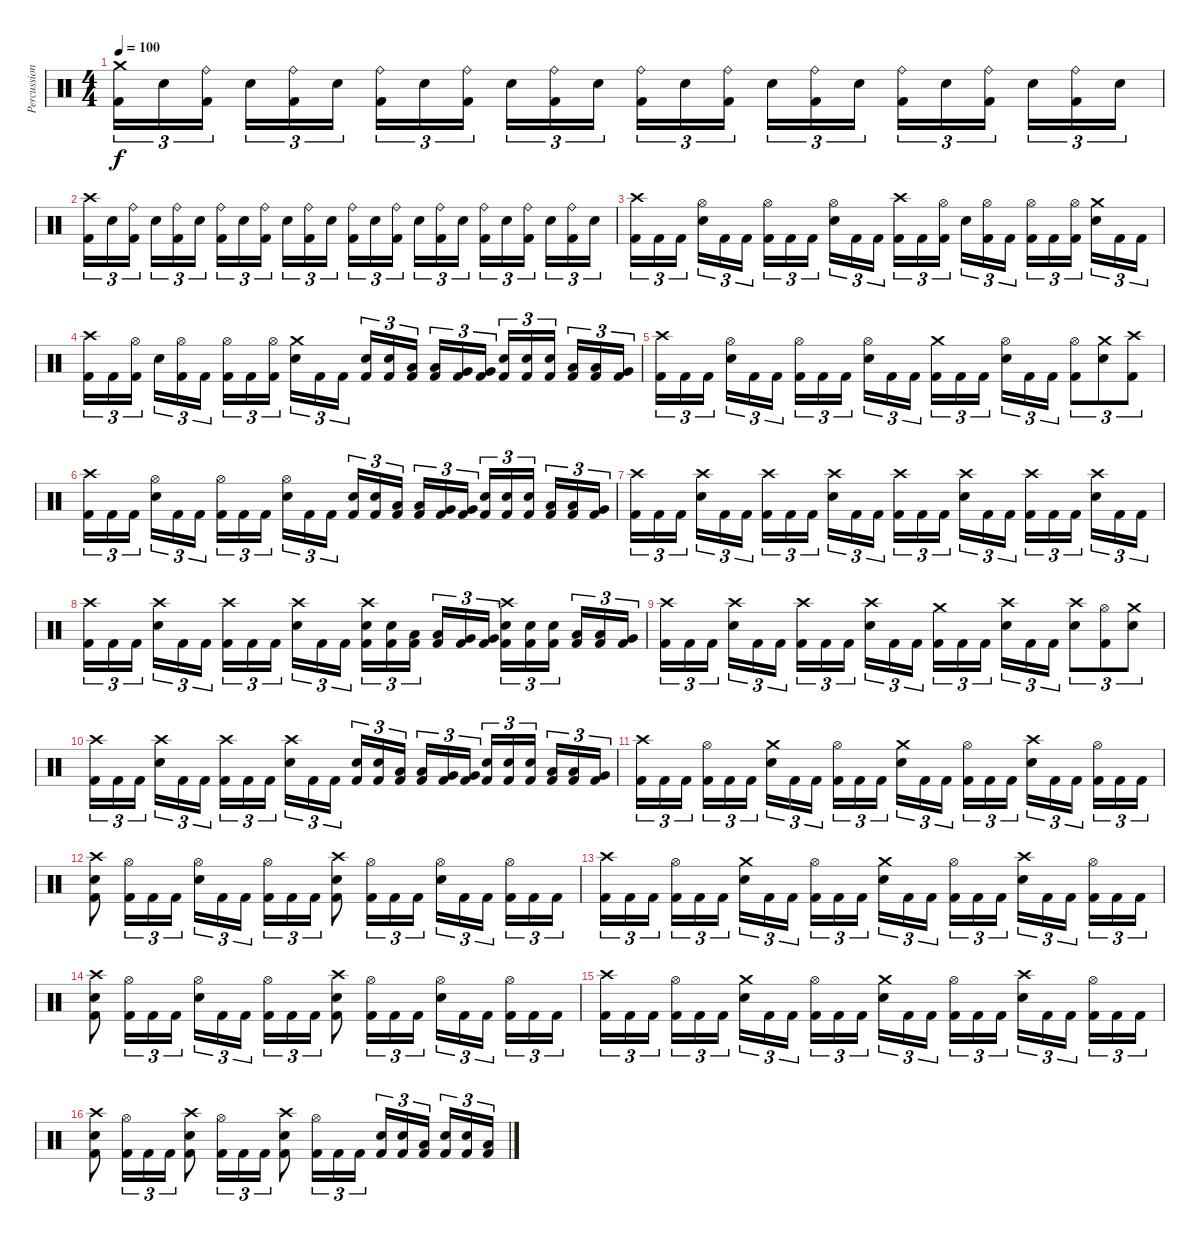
\track ("Percussion" "Percussion") {instrument percussion}
\staff {score}
\articulation defaults
\ts (4 4)
\tempo 100
\clef neutral
\ks c
("Crash medium (hit)" "Kick (hit) 2").16{tu (3 2) dy f} "Electric Snare (hit)".16{tu (3 2)} ("Ride (bell)" "Kick (hit) 2").16{tu (3 2)} "Electric Snare (hit)".16{tu (3 2)} ("Ride (bell)" "Kick (hit) 2").16{tu (3 2)} "Electric Snare (hit)".16{tu (3 2)} ("Ride (bell)" "Kick (hit) 2").16{tu (3 2)} "Electric Snare (hit)".16{tu (3 2)} ("Ride (bell)" "Kick (hit) 2").16{tu (3 2)} "Electric Snare (hit)".16{tu (3 2)} ("Ride (bell)" "Kick (hit) 2").16{tu (3 2)} "Electric Snare (hit)".16{tu (3 2)} ("Ride (bell)" "Kick (hit) 2").16{tu (3 2)} "Electric Snare (hit)".16{tu (3 2)} ("Ride (bell)" "Kick (hit) 2").16{tu (3 2)} "Electric Snare (hit)".16{tu (3 2)} ("Ride (bell)" "Kick (hit) 2").16{tu (3 2)} "Electric Snare (hit)".16{tu (3 2)} ("Ride (bell)" "Kick (hit) 2").16{tu (3 2)} "Electric Snare (hit)".16{tu (3 2)} ("Ride (bell)" "Kick (hit) 2").16{tu (3 2)} "Electric Snare (hit)".16{tu (3 2)} ("Ride (bell)" "Kick (hit) 2").16{tu (3 2)} "Electric Snare (hit)".16{tu (3 2)} |
("Crash high (hit)" "Kick (hit) 2").16{tu (3 2)} "Electric Snare (hit)".16{tu (3 2)} ("Ride (bell)" "Kick (hit) 2").16{tu (3 2)} "Electric Snare (hit)".16{tu (3 2)} ("Ride (bell)" "Kick (hit) 2").16{tu (3 2)} "Electric Snare (hit)".16{tu (3 2)} ("Ride (bell)" "Kick (hit) 2").16{tu (3 2)} "Electric Snare (hit)".16{tu (3 2)} ("Ride (bell)" "Kick (hit) 2").16{tu (3 2)} "Electric Snare (hit)".16{tu (3 2)} ("Ride (bell)" "Kick (hit) 2").16{tu (3 2)} "Electric Snare (hit)".16{tu (3 2)} ("Ride (bell)" "Kick (hit) 2").16{tu (3 2)} "Electric Snare (hit)".16{tu (3 2)} ("Ride (bell)" "Kick (hit) 2").16{tu (3 2)} "Electric Snare (hit)".16{tu (3 2)} ("Ride (bell)" "Kick (hit) 2").16{tu (3 2)} "Electric Snare (hit)".16{tu (3 2)} ("Ride (bell)" "Kick (hit) 2").16{tu (3 2)} "Electric Snare (hit)".16{tu (3 2)} ("Ride (bell)" "Kick (hit) 2").16{tu (3 2)} "Electric Snare (hit)".16{tu (3 2)} ("Ride (bell)" "Kick (hit) 2").16{tu (3 2)} "Electric Snare (hit)".16{tu (3 2)} |
("Crash high (hit)" "Kick (hit) 2").16{tu (3 2)} "Kick (hit) 2".16{tu (3 2)} "Kick (hit) 2".16{tu (3 2)} ("Hi-Hat (open)" "Electric Snare (hit)").16{tu (3 2)} "Kick (hit) 2".16{tu (3 2)} "Kick (hit) 2".16{tu (3 2)} ("Hi-Hat (open)" "Kick (hit) 2").16{tu (3 2)} "Kick (hit) 2".16{tu (3 2)} "Kick (hit) 2".16{tu (3 2)} ("Hi-Hat (open)" "Electric Snare (hit)").16{tu (3 2)} "Kick (hit) 2".16{tu (3 2)} "Kick (hit) 2".16{tu (3 2)} ("Crash high (hit)" "Kick (hit) 2").16{tu (3 2)} "Kick (hit) 2".16{tu (3 2)} ("Hi-Hat (open)" "Kick (hit) 2").16{tu (3 2)} "Electric Snare (hit)".16{tu (3 2)} ("Hi-Hat (open)" "Kick (hit) 2").16{tu (3 2)} "Kick (hit) 2".16{tu (3 2)} ("Hi-Hat (open)" "Kick (hit) 2").16{tu (3 2)} "Kick (hit) 2".16{tu (3 2)} ("Hi-Hat (open)" "Kick (hit) 2").16{tu (3 2)} ("Crash medium (hit)" "Electric Snare (hit)").16{tu (3 2)} "Kick (hit) 2".16{tu (3 2)} "Kick (hit) 2".16{tu (3 2)} |
("Crash high (hit)" "Kick (hit) 2").16{tu (3 2)} "Kick (hit) 2".16{tu (3 2)} ("Hi-Hat (open)" "Kick (hit) 2").16{tu (3 2)} "Electric Snare (hit)".16{tu (3 2)} ("Hi-Hat (open)" "Kick (hit) 2").16{tu (3 2)} "Kick (hit) 2".16{tu (3 2)} ("Hi-Hat (open)" "Kick (hit) 2").16{tu (3 2)} "Kick (hit) 2".16{tu (3 2)} ("Hi-Hat (open)" "Kick (hit) 2").16{tu (3 2)} ("Crash medium (hit)" "Electric Snare (hit)").16{tu (3 2)} "Kick (hit) 2".16{tu (3 2)} "Kick (hit) 2".16{tu (3 2)} ("Electric Snare (hit)" "Kick (hit) 2").16{tu (3 2)} ("Electric Snare (hit)" "Kick (hit) 2").16{tu (3 2)} ("Low Tom (hit)" "Kick (hit) 2").16{tu (3 2)} ("Low Tom (hit)" "Kick (hit) 2").16{tu (3 2)} ("Very Low Tom (hit)" "Kick (hit) 2").16{tu (3 2)} ("Very Low Tom (hit)" "Kick (hit) 2").16{tu (3 2)} ("Electric Snare (hit)" "Kick (hit) 2").16{tu (3 2)} ("Electric Snare (hit)" "Kick (hit) 2").16{tu (3 2)} ("Electric Snare (hit)" "Kick (hit) 2").16{tu (3 2)} ("Low Tom (hit)" "Kick (hit) 2").16{tu (3 2)} ("Low Tom (hit)" "Kick (hit) 2").16{tu (3 2)} ("Very Low Tom (hit)" "Kick (hit) 2").16{tu (3 2)} |
("Crash high (hit)" "Kick (hit) 2").16{tu (3 2)} "Kick (hit) 2".16{tu (3 2)} "Kick (hit) 2".16{tu (3 2)} ("Hi-Hat (open)" "Electric Snare (hit)").16{tu (3 2)} "Kick (hit) 2".16{tu (3 2)} "Kick (hit) 2".16{tu (3 2)} ("Hi-Hat (open)" "Kick (hit) 2").16{tu (3 2)} "Kick (hit) 2".16{tu (3 2)} "Kick (hit) 2".16{tu (3 2)} ("Hi-Hat (open)" "Electric Snare (hit)").16{tu (3 2)} "Kick (hit) 2".16{tu (3 2)} "Kick (hit) 2".16{tu (3 2)} ("Crash medium (hit)" "Kick (hit) 2").16{tu (3 2)} "Kick (hit) 2".16{tu (3 2)} "Kick (hit) 2".16{tu (3 2)} ("Hi-Hat (open)" "Electric Snare (hit)").16{tu (3 2)} "Kick (hit) 2".16{tu (3 2)} "Kick (hit) 2".16{tu (3 2)} ("Hi-Hat (open)" "Kick (hit) 2").8{tu (3 2)} ("Crash medium (hit)" "Electric Snare (hit)").8{tu (3 2)} ("Crash high (hit)" "Kick (hit) 2").8{tu (3 2)} |
("Crash high (hit)" "Kick (hit) 2").16{tu (3 2)} "Kick (hit) 2".16{tu (3 2)} "Kick (hit) 2".16{tu (3 2)} ("Hi-Hat (open)" "Electric Snare (hit)").16{tu (3 2)} "Kick (hit) 2".16{tu (3 2)} "Kick (hit) 2".16{tu (3 2)} ("Hi-Hat (open)" "Kick (hit) 2").16{tu (3 2)} "Kick (hit) 2".16{tu (3 2)} "Kick (hit) 2".16{tu (3 2)} ("Hi-Hat (open)" "Electric Snare (hit)").16{tu (3 2)} "Kick (hit) 2".16{tu (3 2)} "Kick (hit) 2".16{tu (3 2)} ("Electric Snare (hit)" "Kick (hit) 2").16{tu (3 2)} ("Electric Snare (hit)" "Kick (hit) 2").16{tu (3 2)} ("Low Tom (hit)" "Kick (hit) 2").16{tu (3 2)} ("Low Tom (hit)" "Kick (hit) 2").16{tu (3 2)} ("Very Low Tom (hit)" "Kick (hit) 2").16{tu (3 2)} ("Very Low Tom (hit)" "Kick (hit) 2").16{tu (3 2)} ("Electric Snare (hit)" "Kick (hit) 2").16{tu (3 2)} ("Electric Snare (hit)" "Kick (hit) 2").16{tu (3 2)} ("Electric Snare (hit)" "Kick (hit) 2").16{tu (3 2)} ("Low Tom (hit)" "Kick (hit) 2").16{tu (3 2)} ("Low Tom (hit)" "Kick (hit) 2").16{tu (3 2)} ("Very Low Tom (hit)" "Kick (hit) 2").16{tu (3 2)} |
("Crash high (hit)" "Kick (hit) 2").16{tu (3 2)} "Kick (hit) 2".16{tu (3 2)} "Kick (hit) 2".16{tu (3 2)} ("Crash high (hit)" "Electric Snare (hit)").16{tu (3 2)} "Kick (hit) 2".16{tu (3 2)} "Kick (hit) 2".16{tu (3 2)} ("Crash high (hit)" "Kick (hit) 2").16{tu (3 2)} "Kick (hit) 2".16{tu (3 2)} "Kick (hit) 2".16{tu (3 2)} ("Crash high (hit)" "Electric Snare (hit)").16{tu (3 2)} "Kick (hit) 2".16{tu (3 2)} "Kick (hit) 2".16{tu (3 2)} ("Crash high (hit)" "Kick (hit) 2").16{tu (3 2)} "Kick (hit) 2".16{tu (3 2)} "Kick (hit) 2".16{tu (3 2)} ("Crash high (hit)" "Electric Snare (hit)").16{tu (3 2)} "Kick (hit) 2".16{tu (3 2)} "Kick (hit) 2".16{tu (3 2)} ("Crash high (hit)" "Kick (hit) 2").16{tu (3 2)} "Kick (hit) 2".16{tu (3 2)} "Kick (hit) 2".16{tu (3 2)} ("Crash high (hit)" "Electric Snare (hit)").16{tu (3 2)} "Kick (hit) 2".16{tu (3 2)} "Kick (hit) 2".16{tu (3 2)} |
("Crash high (hit)" "Kick (hit) 2").16{tu (3 2)} "Kick (hit) 2".16{tu (3 2)} "Kick (hit) 2".16{tu (3 2)} ("Crash high (hit)" "Electric Snare (hit)").16{tu (3 2)} "Kick (hit) 2".16{tu (3 2)} "Kick (hit) 2".16{tu (3 2)} ("Crash high (hit)" "Kick (hit) 2").16{tu (3 2)} "Kick (hit) 2".16{tu (3 2)} "Kick (hit) 2".16{tu (3 2)} ("Crash high (hit)" "Electric Snare (hit)").16{tu (3 2)} "Kick (hit) 2".16{tu (3 2)} "Kick (hit) 2".16{tu (3 2)} ("Crash high (hit)" "Electric Snare (hit)" "Kick (hit) 2").16{tu (3 2)} ("Electric Snare (hit)" "Kick (hit) 2").16{tu (3 2)} ("Low Tom (hit)" "Kick (hit) 2").16{tu (3 2)} ("Low Tom (hit)" "Kick (hit) 2").16{tu (3 2)} ("Very Low Tom (hit)" "Kick (hit) 2").16{tu (3 2)} ("Very Low Tom (hit)" "Kick (hit) 2").16{tu (3 2)} ("Crash high (hit)" "Electric Snare (hit)" "Kick (hit) 2").16{tu (3 2)} ("Electric Snare (hit)" "Kick (hit) 2").16{tu (3 2)} ("Electric Snare (hit)" "Kick (hit) 2").16{tu (3 2)} ("Low Tom (hit)" "Kick (hit) 2").16{tu (3 2)} ("Low Tom (hit)" "Kick (hit) 2").16{tu (3 2)} ("Very Low Tom (hit)" "Kick (hit) 2").16{tu (3 2)} |
("Crash high (hit)" "Kick (hit) 2").16{tu (3 2)} "Kick (hit) 2".16{tu (3 2)} "Kick (hit) 2".16{tu (3 2)} ("Crash high (hit)" "Electric Snare (hit)").16{tu (3 2)} "Kick (hit) 2".16{tu (3 2)} "Kick (hit) 2".16{tu (3 2)} ("Crash high (hit)" "Kick (hit) 2").16{tu (3 2)} "Kick (hit) 2".16{tu (3 2)} "Kick (hit) 2".16{tu (3 2)} ("Crash high (hit)" "Electric Snare (hit)").16{tu (3 2)} "Kick (hit) 2".16{tu (3 2)} "Kick (hit) 2".16{tu (3 2)} ("Crash medium (hit)" "Kick (hit) 2").16{tu (3 2)} "Kick (hit) 2".16{tu (3 2)} "Kick (hit) 2".16{tu (3 2)} ("Crash high (hit)" "Electric Snare (hit)").16{tu (3 2)} "Kick (hit) 2".16{tu (3 2)} "Kick (hit) 2".16{tu (3 2)} ("Crash high (hit)" "Electric Snare (hit)").8{tu (3 2)} ("Hi-Hat (open)" "Kick (hit) 2").8{tu (3 2)} ("Crash medium (hit)" "Electric Snare (hit)").8{tu (3 2)} |
("Crash high (hit)" "Kick (hit) 2").16{tu (3 2)} "Kick (hit) 2".16{tu (3 2)} "Kick (hit) 2".16{tu (3 2)} ("Crash high (hit)" "Electric Snare (hit)").16{tu (3 2)} "Kick (hit) 2".16{tu (3 2)} "Kick (hit) 2".16{tu (3 2)} ("Crash high (hit)" "Kick (hit) 2").16{tu (3 2)} "Kick (hit) 2".16{tu (3 2)} "Kick (hit) 2".16{tu (3 2)} ("Crash high (hit)" "Electric Snare (hit)").16{tu (3 2)} "Kick (hit) 2".16{tu (3 2)} "Kick (hit) 2".16{tu (3 2)} ("Electric Snare (hit)" "Kick (hit) 2").16{tu (3 2)} ("Electric Snare (hit)" "Kick (hit) 2").16{tu (3 2)} ("Low Tom (hit)" "Kick (hit) 2").16{tu (3 2)} ("Low Tom (hit)" "Kick (hit) 2").16{tu (3 2)} ("Very Low Tom (hit)" "Kick (hit) 2").16{tu (3 2)} ("Very Low Tom (hit)" "Kick (hit) 2").16{tu (3 2)} ("Electric Snare (hit)" "Kick (hit) 2").16{tu (3 2)} ("Electric Snare (hit)" "Kick (hit) 2").16{tu (3 2)} ("Electric Snare (hit)" "Kick (hit) 2").16{tu (3 2)} ("Low Tom (hit)" "Kick (hit) 2").16{tu (3 2)} ("Low Tom (hit)" "Kick (hit) 2").16{tu (3 2)} ("Very Low Tom (hit)" "Kick (hit) 2").16{tu (3 2)} |
("Crash high (hit)" "Kick (hit) 2").16{tu (3 2)} "Kick (hit) 2".16{tu (3 2)} "Kick (hit) 2".16{tu (3 2)} ("Hi-Hat (open)" "Kick (hit) 2").16{tu (3 2)} "Kick (hit) 2".16{tu (3 2)} "Kick (hit) 2".16{tu (3 2)} ("Crash medium (hit)" "Electric Snare (hit)").16{tu (3 2)} "Kick (hit) 2".16{tu (3 2)} "Kick (hit) 2".16{tu (3 2)} ("Hi-Hat (open)" "Kick (hit) 2").16{tu (3 2)} "Kick (hit) 2".16{tu (3 2)} "Kick (hit) 2".16{tu (3 2)} ("Crash medium (hit)" "Electric Snare (hit)").16{tu (3 2)} "Kick (hit) 2".16{tu (3 2)} "Kick (hit) 2".16{tu (3 2)} ("Hi-Hat (open)" "Kick (hit) 2").16{tu (3 2)} "Kick (hit) 2".16{tu (3 2)} "Kick (hit) 2".16{tu (3 2)} ("Crash high (hit)" "Electric Snare (hit)").16{tu (3 2)} "Kick (hit) 2".16{tu (3 2)} "Kick (hit) 2".16{tu (3 2)} ("Hi-Hat (open)" "Kick (hit) 2").16{tu (3 2)} "Kick (hit) 2".16{tu (3 2)} "Kick (hit) 2".16{tu (3 2)} |
("Crash high (hit)" "Electric Snare (hit)" "Kick (hit) 2").8 ("Hi-Hat (open)" "Kick (hit) 2").16{tu (3 2)} "Kick (hit) 2".16{tu (3 2)} "Kick (hit) 2".16{tu (3 2)} ("Hi-Hat (open)" "Electric Snare (hit)").16{tu (3 2)} "Kick (hit) 2".16{tu (3 2)} "Kick (hit) 2".16{tu (3 2)} ("Hi-Hat (open)" "Kick (hit) 2").16{tu (3 2)} "Kick (hit) 2".16{tu (3 2)} "Kick (hit) 2".16{tu (3 2)} ("Crash high (hit)" "Electric Snare (hit)" "Kick (hit) 2").8 ("Hi-Hat (open)" "Kick (hit) 2").16{tu (3 2)} "Kick (hit) 2".16{tu (3 2)} "Kick (hit) 2".16{tu (3 2)} ("Hi-Hat (open)" "Electric Snare (hit)").16{tu (3 2)} "Kick (hit) 2".16{tu (3 2)} "Kick (hit) 2".16{tu (3 2)} ("Hi-Hat (open)" "Kick (hit) 2").16{tu (3 2)} "Kick (hit) 2".16{tu (3 2)} "Kick (hit) 2".16{tu (3 2)} |
("Crash high (hit)" "Kick (hit) 2").16{tu (3 2)} "Kick (hit) 2".16{tu (3 2)} "Kick (hit) 2".16{tu (3 2)} ("Hi-Hat (open)" "Kick (hit) 2").16{tu (3 2)} "Kick (hit) 2".16{tu (3 2)} "Kick (hit) 2".16{tu (3 2)} ("Crash medium (hit)" "Electric Snare (hit)").16{tu (3 2)} "Kick (hit) 2".16{tu (3 2)} "Kick (hit) 2".16{tu (3 2)} ("Hi-Hat (open)" "Kick (hit) 2").16{tu (3 2)} "Kick (hit) 2".16{tu (3 2)} "Kick (hit) 2".16{tu (3 2)} ("Crash medium (hit)" "Electric Snare (hit)").16{tu (3 2)} "Kick (hit) 2".16{tu (3 2)} "Kick (hit) 2".16{tu (3 2)} ("Hi-Hat (open)" "Kick (hit) 2").16{tu (3 2)} "Kick (hit) 2".16{tu (3 2)} "Kick (hit) 2".16{tu (3 2)} ("Crash high (hit)" "Electric Snare (hit)").16{tu (3 2)} "Kick (hit) 2".16{tu (3 2)} "Kick (hit) 2".16{tu (3 2)} ("Hi-Hat (open)" "Kick (hit) 2").16{tu (3 2)} "Kick (hit) 2".16{tu (3 2)} "Kick (hit) 2".16{tu (3 2)} |
("Crash high (hit)" "Electric Snare (hit)" "Kick (hit) 2").8 ("Hi-Hat (open)" "Kick (hit) 2").16{tu (3 2)} "Kick (hit) 2".16{tu (3 2)} "Kick (hit) 2".16{tu (3 2)} ("Hi-Hat (open)" "Electric Snare (hit)").16{tu (3 2)} "Kick (hit) 2".16{tu (3 2)} "Kick (hit) 2".16{tu (3 2)} ("Hi-Hat (open)" "Kick (hit) 2").16{tu (3 2)} "Kick (hit) 2".16{tu (3 2)} "Kick (hit) 2".16{tu (3 2)} ("Crash high (hit)" "Electric Snare (hit)" "Kick (hit) 2").8 ("Hi-Hat (open)" "Kick (hit) 2").16{tu (3 2)} "Kick (hit) 2".16{tu (3 2)} "Kick (hit) 2".16{tu (3 2)} ("Hi-Hat (open)" "Electric Snare (hit)").16{tu (3 2)} "Kick (hit) 2".16{tu (3 2)} "Kick (hit) 2".16{tu (3 2)} ("Hi-Hat (open)" "Kick (hit) 2").16{tu (3 2)} "Kick (hit) 2".16{tu (3 2)} "Kick (hit) 2".16{tu (3 2)} |
("Crash high (hit)" "Kick (hit) 2").16{tu (3 2)} "Kick (hit) 2".16{tu (3 2)} "Kick (hit) 2".16{tu (3 2)} ("Hi-Hat (open)" "Kick (hit) 2").16{tu (3 2)} "Kick (hit) 2".16{tu (3 2)} "Kick (hit) 2".16{tu (3 2)} ("Crash medium (hit)" "Electric Snare (hit)").16{tu (3 2)} "Kick (hit) 2".16{tu (3 2)} "Kick (hit) 2".16{tu (3 2)} ("Hi-Hat (open)" "Kick (hit) 2").16{tu (3 2)} "Kick (hit) 2".16{tu (3 2)} "Kick (hit) 2".16{tu (3 2)} ("Crash medium (hit)" "Electric Snare (hit)").16{tu (3 2)} "Kick (hit) 2".16{tu (3 2)} "Kick (hit) 2".16{tu (3 2)} ("Hi-Hat (open)" "Kick (hit) 2").16{tu (3 2)} "Kick (hit) 2".16{tu (3 2)} "Kick (hit) 2".16{tu (3 2)} ("Crash high (hit)" "Electric Snare (hit)").16{tu (3 2)} "Kick (hit) 2".16{tu (3 2)} "Kick (hit) 2".16{tu (3 2)} ("Hi-Hat (open)" "Kick (hit) 2").16{tu (3 2)} "Kick (hit) 2".16{tu (3 2)} "Kick (hit) 2".16{tu (3 2)} |
("Crash high (hit)" "Electric Snare (hit)" "Kick (hit) 2").8 ("Hi-Hat (open)" "Kick (hit) 2").16{tu (3 2)} "Kick (hit) 2".16{tu (3 2)} "Kick (hit) 2".16{tu (3 2)} ("Crash high (hit)" "Electric Snare (hit)" "Kick (hit) 2").8 ("Hi-Hat (open)" "Kick (hit) 2").16{tu (3 2)} "Kick (hit) 2".16{tu (3 2)} "Kick (hit) 2".16{tu (3 2)} ("Crash high (hit)" "Electric Snare (hit)" "Kick (hit) 2").8 ("Hi-Hat (open)" "Kick (hit) 2").16{tu (3 2)} "Kick (hit) 2".16{tu (3 2)} "Kick (hit) 2".16{tu (3 2)} ("Electric Snare (hit)" "Kick (hit) 2").16{tu (3 2)} ("Electric Snare (hit)" "Kick (hit) 2").16{tu (3 2)} ("Low Tom (hit)" "Kick (hit) 2").16{tu (3 2)} ("Electric Snare (hit)" "Kick (hit) 2").16{tu (3 2)} ("Electric Snare (hit)" "Kick (hit) 2").16{tu (3 2)} ("Low Tom (hit)" "Kick (hit) 2").16{tu (3 2)}
